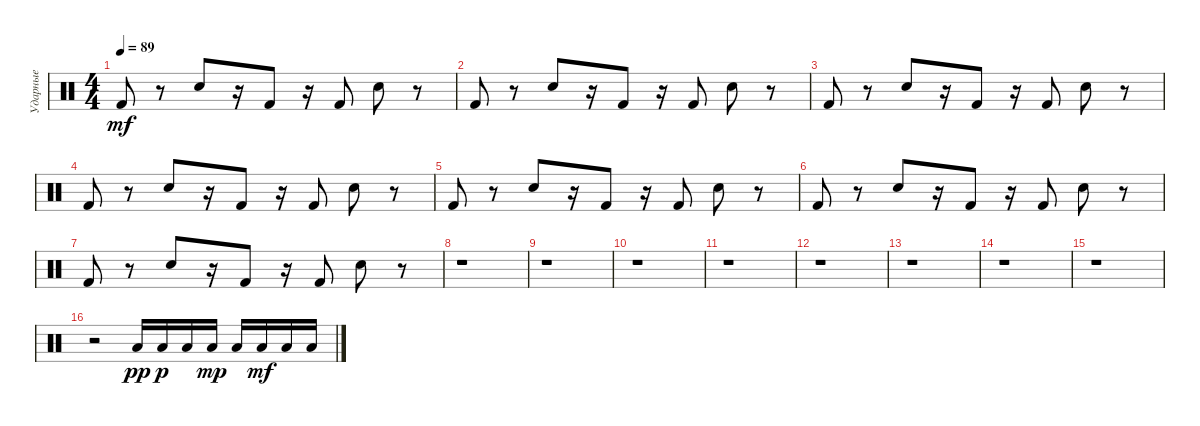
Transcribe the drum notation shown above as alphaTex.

\track ("Ударные " "Ударные ") {instrument percussion}
\staff {score}
\articulation defaults
\ts (4 4)
\tempo 89
\clef neutral
\ks c "Kick (hit) 2".8{dy mf}
r.8 "Snare (hit) 2".8 r.16 "Kick (hit) 2".8 r.16 "Kick (hit) 2".8 "Snare (hit) 2".8 r.8 |
"Kick (hit) 2".8 r.8 "Snare (hit) 2".8 r.16 "Kick (hit) 2".8 r.16 "Kick (hit) 2".8 "Snare (hit) 2".8 r.8 |
"Kick (hit) 2".8 r.8 "Snare (hit) 2".8 r.16 "Kick (hit) 2".8 r.16 "Kick (hit) 2".8 "Snare (hit) 2".8 r.8 |
"Kick (hit) 2".8 r.8 "Snare (hit) 2".8 r.16 "Kick (hit) 2".8 r.16 "Kick (hit) 2".8 "Snare (hit) 2".8 r.8 |
"Kick (hit) 2".8 r.8 "Snare (hit) 2".8 r.16 "Kick (hit) 2".8 r.16 "Kick (hit) 2".8 "Snare (hit) 2".8 r.8 |
"Kick (hit) 2".8 r.8 "Snare (hit) 2".8 r.16 "Kick (hit) 2".8 r.16 "Kick (hit) 2".8 "Snare (hit) 2".8 r.8 |
"Kick (hit) 2".8 r.8 "Snare (hit) 2".8 r.16 "Kick (hit) 2".8 r.16 "Kick (hit) 2".8 "Snare (hit) 2".8 r.8 |
r.1 |
r.1 |
r.1 |
r.1 |
r.1 |
r.1 |
r.1 |
r.1 |
r.2 "Low Tom (hit)".16{dy pp} "Low Tom (hit)".16{dy p} "Low Tom (hit)".16 "Low Tom (hit)".16{dy mp} "Low Tom (hit)".16 "Low Tom (hit)".16{dy mf} "Low Tom (hit)".16 "Low Tom (hit)".16
